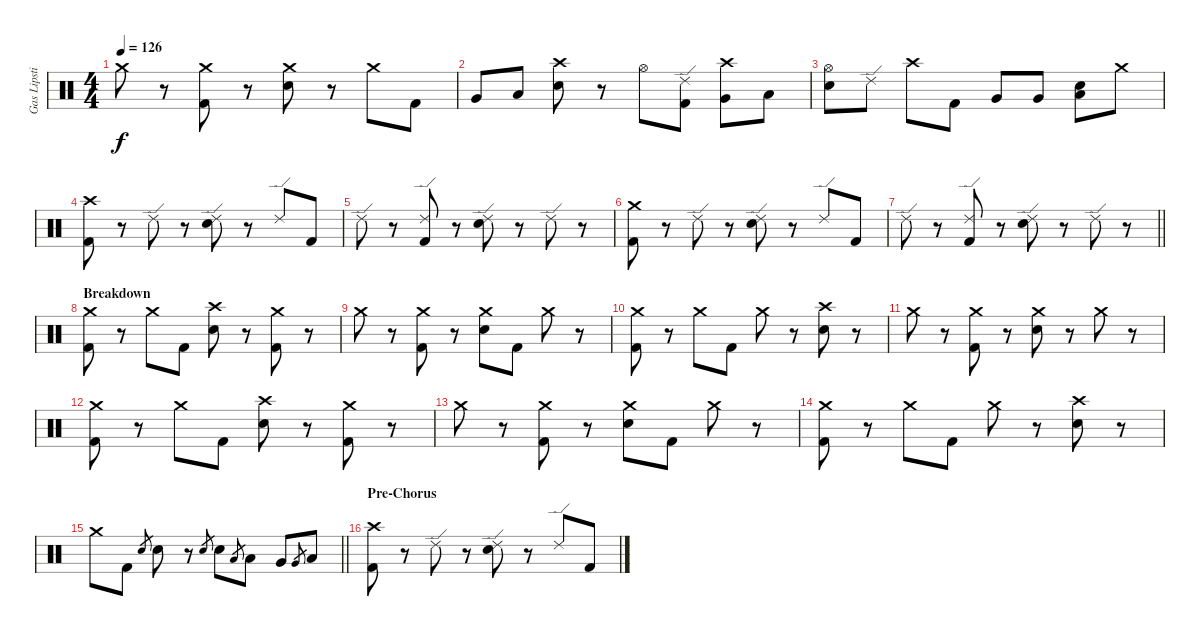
\track ("Gas Lipstick (Drums)" "Gas Lipsti") {instrument percussion}
\staff {score}
\articulation defaults
\ts (4 4)
\tempo 126
\clef neutral
\ks c "Crash medium (hit)".8{dy f}
r.8 ("Crash medium (hit)" "Kick (hit) 2").8 r.8 ("Crash medium (hit)" "Snare (hit) 2").8 r.8 "Crash medium (hit)".8 "Kick (hit) 2".8 |
"Very Low Tom (hit)".8 "Low Floor Tom (hit)".8 ("Crash high (hit)" "Snare (hit) 2").8 r.8 "Hi-Hat (open)".8 ("Ride (edge) 2" "Kick (hit) 2").8 ("Crash high (hit)" "Very Low Tom (hit)").8 "Low Floor Tom (hit)".8 |
("Hi-Hat (open)" "Snare (hit) 2").8 "Ride (edge) 2".8 "Crash high (hit)".8 "Kick (hit) 2".8 "Very Low Tom (hit)".8 "Very Low Tom (hit)".8 ("Low Floor Tom (hit)" "Snare (hit) 2").8 "Crash medium (hit)".8 |
("Crash high (hit)" "Kick (hit) 2").8 r.8 "Ride (edge) 2".8 r.8 ("Ride (edge) 2" "Snare (hit) 2").8 r.8 "Ride (edge) 2".8 "Kick (hit) 2".8 |
"Ride (edge) 2".8 r.8 ("Ride (edge) 2" "Kick (hit) 2").8 r.8 ("Ride (edge) 2" "Snare (hit) 2").8 r.8 "Ride (edge) 2".8 r.8 |
("Crash medium (hit)" "Kick (hit) 2").8 r.8 "Ride (edge) 2".8 r.8 ("Ride (edge) 2" "Snare (hit) 2").8 r.8 "Ride (edge) 2".8 "Kick (hit) 2".8 |
\barLineRight lightlight "Ride (edge) 2".8
r.8 ("Ride (edge) 2" "Kick (hit) 2").8 r.8 ("Ride (edge) 2" "Snare (hit) 2").8 r.8 "Ride (edge) 2".8 r.8 |
\section ("" "Breakdown")
("Crash medium (hit)" "Kick (hit) 2").8 r.8 "Crash medium (hit)".8 "Kick (hit) 2".8 ("Crash high (hit)" "Snare (hit) 2").8 r.8 ("Crash medium (hit)" "Kick (hit) 2").8 r.8 |
"Crash medium (hit)".8 r.8 ("Crash medium (hit)" "Kick (hit) 2").8 r.8 ("Crash medium (hit)" "Snare (hit) 2").8 "Kick (hit) 2".8 "Crash medium (hit)".8 r.8 |
("Crash medium (hit)" "Kick (hit) 2").8 r.8 "Crash medium (hit)".8 "Kick (hit) 2".8 "Crash medium (hit)".8 r.8 ("Crash high (hit)" "Snare (hit) 2").8 r.8 |
"Crash medium (hit)".8 r.8 ("Crash medium (hit)" "Kick (hit) 2").8 r.8 ("Crash medium (hit)" "Snare (hit) 2").8 r.8 "Crash medium (hit)".8 r.8 |
("Crash medium (hit)" "Kick (hit) 2").8 r.8 "Crash medium (hit)".8 "Kick (hit) 2".8 ("Crash high (hit)" "Snare (hit) 2").8 r.8 ("Crash medium (hit)" "Kick (hit) 2").8 r.8 |
"Crash medium (hit)".8 r.8 ("Crash medium (hit)" "Kick (hit) 2").8 r.8 ("Crash medium (hit)" "Snare (hit) 2").8 "Kick (hit) 2".8 "Crash medium (hit)".8 r.8 |
("Crash medium (hit)" "Kick (hit) 2").8 r.8 "Crash medium (hit)".8 "Kick (hit) 2".8 "Crash medium (hit)".8 r.8 ("Crash high (hit)" "Snare (hit) 2").8 r.8 |
\barLineRight lightlight "Crash medium (hit)".8 "Kick (hit) 2".8 "Snare (hit) 2".8{gr} "Snare (hit) 2".8
r.8 "Snare (hit) 2".8{gr} "Snare (hit) 2".8 "Low Tom (hit)".8{gr} "Low Tom (hit)".8 "Very Low Tom (hit)".8 "Very Low Tom (hit)".8{gr} "Low Floor Tom (hit)".8 |
\section ("" "Pre-Chorus")
("Crash high (hit)" "Kick (hit) 2").8 r.8 "Ride (edge) 2".8 r.8 ("Ride (edge) 2" "Snare (hit) 2").8 r.8 "Ride (edge) 2".8 "Kick (hit) 2".8
